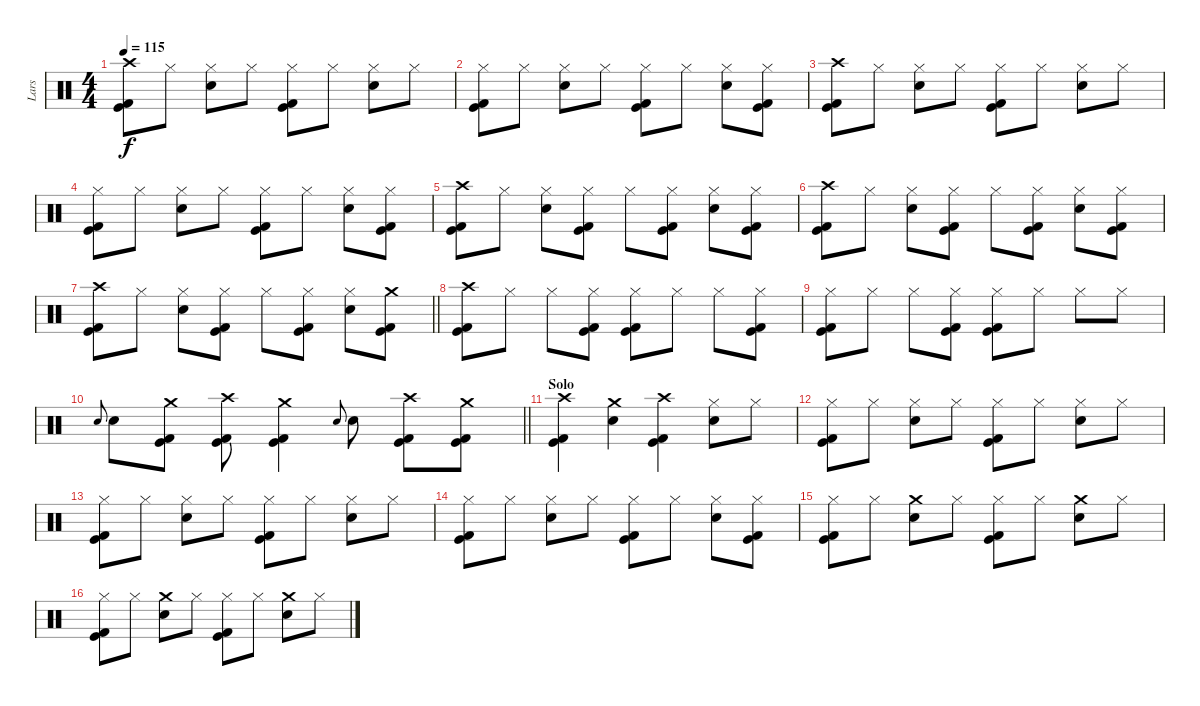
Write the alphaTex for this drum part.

\track ("Lars" "Lars") {instrument percussion}
\staff {score}
\articulation defaults
\ts (4 4)
\tempo 115
\clef neutral
\ks c
("Crash high (hit)" "Kick (hit)" "Kick (hit) 2").8{dy f} "Hi-Hat (closed)".8 ("Hi-Hat (closed)" "Electric Snare (hit)").8 "Hi-Hat (closed)".8 ("Hi-Hat (closed)" "Kick (hit)" "Kick (hit) 2").8 "Hi-Hat (closed)".8 ("Hi-Hat (closed)" "Electric Snare (hit)").8 "Hi-Hat (closed)".8 |
("Hi-Hat (closed)" "Kick (hit)" "Kick (hit) 2").8 "Hi-Hat (closed)".8 ("Hi-Hat (closed)" "Electric Snare (hit)").8 "Hi-Hat (closed)".8 ("Hi-Hat (closed)" "Kick (hit)" "Kick (hit) 2").8 "Hi-Hat (closed)".8 ("Hi-Hat (closed)" "Electric Snare (hit)").8 ("Hi-Hat (closed)" "Kick (hit)" "Kick (hit) 2").8 |
("Crash high (hit)" "Kick (hit)" "Kick (hit) 2").8 "Hi-Hat (closed)".8 ("Hi-Hat (closed)" "Electric Snare (hit)").8 "Hi-Hat (closed)".8 ("Hi-Hat (closed)" "Kick (hit)" "Kick (hit) 2").8 "Hi-Hat (closed)".8 ("Hi-Hat (closed)" "Electric Snare (hit)").8 "Hi-Hat (closed)".8 |
("Hi-Hat (closed)" "Kick (hit)" "Kick (hit) 2").8 "Hi-Hat (closed)".8 ("Hi-Hat (closed)" "Electric Snare (hit)").8 "Hi-Hat (closed)".8 ("Hi-Hat (closed)" "Kick (hit)" "Kick (hit) 2").8 "Hi-Hat (closed)".8 ("Hi-Hat (closed)" "Electric Snare (hit)").8 ("Hi-Hat (closed)" "Kick (hit)" "Kick (hit) 2").8 |
("Crash high (hit)" "Kick (hit)" "Kick (hit) 2").8 "Hi-Hat (closed)".8 ("Hi-Hat (closed)" "Electric Snare (hit)").8 ("Hi-Hat (closed)" "Kick (hit)" "Kick (hit) 2").8 "Hi-Hat (closed)".8 ("Hi-Hat (closed)" "Kick (hit)" "Kick (hit) 2").8 ("Hi-Hat (closed)" "Electric Snare (hit)").8 ("Hi-Hat (closed)" "Kick (hit)" "Kick (hit) 2").8 |
("Crash high (hit)" "Kick (hit)" "Kick (hit) 2").8 "Hi-Hat (closed)".8 ("Hi-Hat (closed)" "Electric Snare (hit)").8 ("Hi-Hat (closed)" "Kick (hit)" "Kick (hit) 2").8 "Hi-Hat (closed)".8 ("Hi-Hat (closed)" "Kick (hit)" "Kick (hit) 2").8 ("Hi-Hat (closed)" "Electric Snare (hit)").8 ("Hi-Hat (closed)" "Kick (hit)" "Kick (hit) 2").8 |
\barLineRight lightlight
("Crash high (hit)" "Kick (hit)" "Kick (hit) 2").8 "Hi-Hat (closed)".8 ("Hi-Hat (closed)" "Electric Snare (hit)").8 ("Hi-Hat (closed)" "Kick (hit)" "Kick (hit) 2").8 "Hi-Hat (closed)".8 ("Hi-Hat (closed)" "Kick (hit)" "Kick (hit) 2").8 ("Hi-Hat (closed)" "Electric Snare (hit)").8 ("Crash medium (hit)" "Kick (hit)" "Kick (hit) 2").8 |
\section ("" "")
("Crash high (hit)" "Kick (hit)" "Kick (hit) 2").8 "Hi-Hat (closed)".8 "Hi-Hat (closed)".8 ("Hi-Hat (closed)" "Kick (hit)" "Kick (hit) 2").8 ("Hi-Hat (closed)" "Kick (hit)" "Kick (hit) 2").8 "Hi-Hat (closed)".8 "Hi-Hat (closed)".8 ("Hi-Hat (closed)" "Kick (hit)" "Kick (hit) 2").8 |
("Hi-Hat (closed)" "Kick (hit)" "Kick (hit) 2").8 "Hi-Hat (closed)".8 "Hi-Hat (closed)".8 ("Hi-Hat (closed)" "Kick (hit)" "Kick (hit) 2").8 ("Hi-Hat (closed)" "Kick (hit)" "Kick (hit) 2").8 "Hi-Hat (closed)".8 "Hi-Hat (closed)".8 "Hi-Hat (closed)".8 |
\barLineRight lightlight "Electric Snare (hit)".8{gr onbeat} "Electric Snare (hit)".8
("Crash medium (hit)" "Kick (hit)" "Kick (hit) 2").8 ("Crash high (hit)" "Kick (hit)" "Kick (hit) 2").8 ("Crash medium (hit)" "Kick (hit)" "Kick (hit) 2").4 "Electric Snare (hit)".8{gr onbeat} "Electric Snare (hit)".8 ("Crash high (hit)" "Kick (hit)" "Kick (hit) 2").8 ("Crash medium (hit)" "Kick (hit)" "Kick (hit) 2").8 |
\section ("" "Solo")
("Crash high (hit)" "Kick (hit)" "Kick (hit) 2").4 ("Crash medium (hit)" "Electric Snare (hit)").4 ("Crash high (hit)" "Kick (hit)" "Kick (hit) 2").4 ("Hi-Hat (closed)" "Electric Snare (hit)").8 "Hi-Hat (closed)".8 |
("Hi-Hat (closed)" "Kick (hit)" "Kick (hit) 2").8 "Hi-Hat (closed)".8 ("Hi-Hat (closed)" "Electric Snare (hit)").8 "Hi-Hat (closed)".8 ("Hi-Hat (closed)" "Kick (hit)" "Kick (hit) 2").8 "Hi-Hat (closed)".8 ("Hi-Hat (closed)" "Electric Snare (hit)").8 "Hi-Hat (closed)".8 |
("Hi-Hat (closed)" "Kick (hit)" "Kick (hit) 2").8 "Hi-Hat (closed)".8 ("Hi-Hat (closed)" "Electric Snare (hit)").8 "Hi-Hat (closed)".8 ("Hi-Hat (closed)" "Kick (hit)" "Kick (hit) 2").8 "Hi-Hat (closed)".8 ("Hi-Hat (closed)" "Electric Snare (hit)").8 "Hi-Hat (closed)".8 |
("Hi-Hat (closed)" "Kick (hit)" "Kick (hit) 2").8 "Hi-Hat (closed)".8 ("Hi-Hat (closed)" "Electric Snare (hit)").8 "Hi-Hat (closed)".8 ("Hi-Hat (closed)" "Kick (hit)" "Kick (hit) 2").8 "Hi-Hat (closed)".8 ("Hi-Hat (closed)" "Electric Snare (hit)").8 ("Hi-Hat (closed)" "Kick (hit)" "Kick (hit) 2").8 |
("Hi-Hat (closed)" "Kick (hit)" "Kick (hit) 2").8 "Hi-Hat (closed)".8 ("Crash medium (hit)" "Electric Snare (hit)").8 "Hi-Hat (closed)".8 ("Hi-Hat (closed)" "Kick (hit)" "Kick (hit) 2").8 "Hi-Hat (closed)".8 ("Crash medium (hit)" "Electric Snare (hit)").8 "Hi-Hat (closed)".8 |
("Hi-Hat (closed)" "Kick (hit)" "Kick (hit) 2").8 "Hi-Hat (closed)".8 ("Crash medium (hit)" "Electric Snare (hit)").8 "Hi-Hat (closed)".8 ("Hi-Hat (closed)" "Kick (hit)" "Kick (hit) 2").8 "Hi-Hat (closed)".8 ("Crash medium (hit)" "Electric Snare (hit)").8 "Hi-Hat (closed)".8
